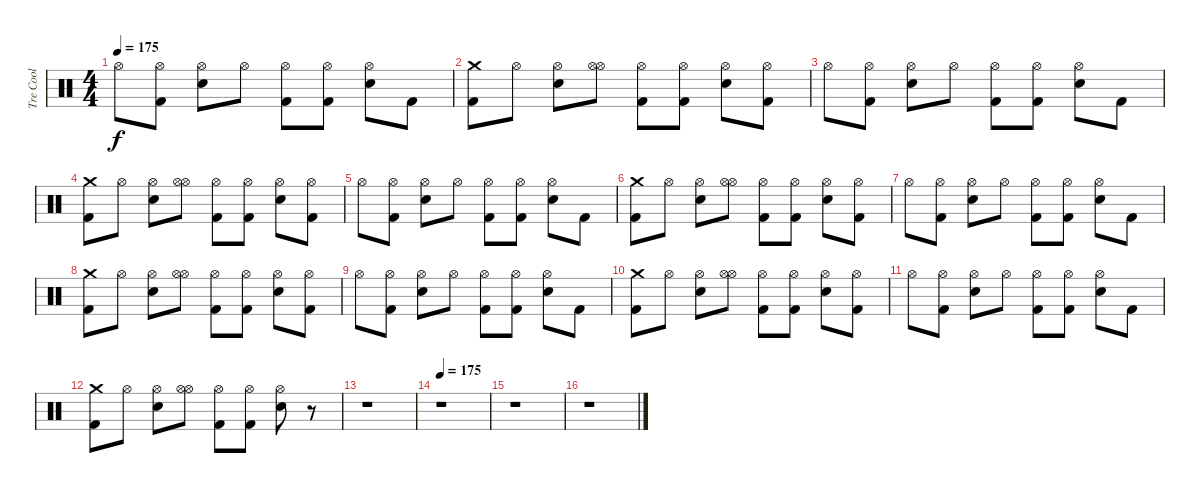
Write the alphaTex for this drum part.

\track ("Tre Cool" "Tre Cool") {instrument percussion}
\staff {score}
\articulation defaults
\ts (4 4)
\tempo 175
\clef neutral
\ks c "Hi-Hat (open)".8{dy f}
("Kick (hit) 2" "Hi-Hat (open)").8 ("Snare (hit) 2" "Hi-Hat (open)").8 "Hi-Hat (open)".8 ("Kick (hit) 2" "Hi-Hat (open)").8 ("Kick (hit) 2" "Hi-Hat (open)").8 ("Snare (hit) 2" "Hi-Hat (open)").8 "Kick (hit) 2".8 |
("Kick (hit) 2" "Crash medium (hit)").8 "Hi-Hat (open)".8 ("Snare (hit) 2" "Hi-Hat (open)").8 ("Hi-Hat (open)" "Hi-Hat (open)").8 ("Kick (hit) 2" "Hi-Hat (open)").8 ("Kick (hit) 2" "Hi-Hat (open)").8 ("Snare (hit) 2" "Hi-Hat (open)").8 ("Kick (hit) 2" "Hi-Hat (open)").8 |
"Hi-Hat (open)".8 ("Kick (hit) 2" "Hi-Hat (open)").8 ("Snare (hit) 2" "Hi-Hat (open)").8 "Hi-Hat (open)".8 ("Kick (hit) 2" "Hi-Hat (open)").8 ("Kick (hit) 2" "Hi-Hat (open)").8 ("Snare (hit) 2" "Hi-Hat (open)").8 "Kick (hit) 2".8 |
("Kick (hit) 2" "Crash medium (hit)").8 "Hi-Hat (open)".8 ("Snare (hit) 2" "Hi-Hat (open)").8 ("Hi-Hat (open)" "Hi-Hat (open)").8 ("Kick (hit) 2" "Hi-Hat (open)").8 ("Kick (hit) 2" "Hi-Hat (open)").8 ("Snare (hit) 2" "Hi-Hat (open)").8 ("Kick (hit) 2" "Hi-Hat (open)").8 |
"Hi-Hat (open)".8 ("Kick (hit) 2" "Hi-Hat (open)").8 ("Snare (hit) 2" "Hi-Hat (open)").8 "Hi-Hat (open)".8 ("Kick (hit) 2" "Hi-Hat (open)").8 ("Kick (hit) 2" "Hi-Hat (open)").8 ("Snare (hit) 2" "Hi-Hat (open)").8 "Kick (hit) 2".8 |
("Kick (hit) 2" "Crash medium (hit)").8 "Hi-Hat (open)".8 ("Snare (hit) 2" "Hi-Hat (open)").8 ("Hi-Hat (open)" "Hi-Hat (open)").8 ("Kick (hit) 2" "Hi-Hat (open)").8 ("Kick (hit) 2" "Hi-Hat (open)").8 ("Snare (hit) 2" "Hi-Hat (open)").8 ("Kick (hit) 2" "Hi-Hat (open)").8 |
"Hi-Hat (open)".8 ("Kick (hit) 2" "Hi-Hat (open)").8 ("Snare (hit) 2" "Hi-Hat (open)").8 "Hi-Hat (open)".8 ("Kick (hit) 2" "Hi-Hat (open)").8 ("Kick (hit) 2" "Hi-Hat (open)").8 ("Snare (hit) 2" "Hi-Hat (open)").8 "Kick (hit) 2".8 |
("Kick (hit) 2" "Crash medium (hit)").8 "Hi-Hat (open)".8 ("Snare (hit) 2" "Hi-Hat (open)").8 ("Hi-Hat (open)" "Hi-Hat (open)").8 ("Kick (hit) 2" "Hi-Hat (open)").8 ("Kick (hit) 2" "Hi-Hat (open)").8 ("Snare (hit) 2" "Hi-Hat (open)").8 ("Kick (hit) 2" "Hi-Hat (open)").8 |
"Hi-Hat (open)".8 ("Kick (hit) 2" "Hi-Hat (open)").8 ("Snare (hit) 2" "Hi-Hat (open)").8 "Hi-Hat (open)".8 ("Kick (hit) 2" "Hi-Hat (open)").8 ("Kick (hit) 2" "Hi-Hat (open)").8 ("Snare (hit) 2" "Hi-Hat (open)").8 "Kick (hit) 2".8 |
("Kick (hit) 2" "Crash medium (hit)").8 "Hi-Hat (open)".8 ("Snare (hit) 2" "Hi-Hat (open)").8 ("Hi-Hat (open)" "Hi-Hat (open)").8 ("Kick (hit) 2" "Hi-Hat (open)").8 ("Kick (hit) 2" "Hi-Hat (open)").8 ("Snare (hit) 2" "Hi-Hat (open)").8 ("Kick (hit) 2" "Hi-Hat (open)").8 |
"Hi-Hat (open)".8 ("Kick (hit) 2" "Hi-Hat (open)").8 ("Snare (hit) 2" "Hi-Hat (open)").8 "Hi-Hat (open)".8 ("Kick (hit) 2" "Hi-Hat (open)").8 ("Kick (hit) 2" "Hi-Hat (open)").8 ("Snare (hit) 2" "Hi-Hat (open)").8 "Kick (hit) 2".8 |
("Kick (hit) 2" "Crash medium (hit)").8 "Hi-Hat (open)".8 ("Snare (hit) 2" "Hi-Hat (open)").8 ("Hi-Hat (open)" "Hi-Hat (open)").8 ("Kick (hit) 2" "Hi-Hat (open)").8 ("Kick (hit) 2" "Hi-Hat (open)").8 ("Snare (hit) 2" "Hi-Hat (open)").8 r.8 |
r.1 |
\tempo 175
r.1 |
r.1 |
r.1
